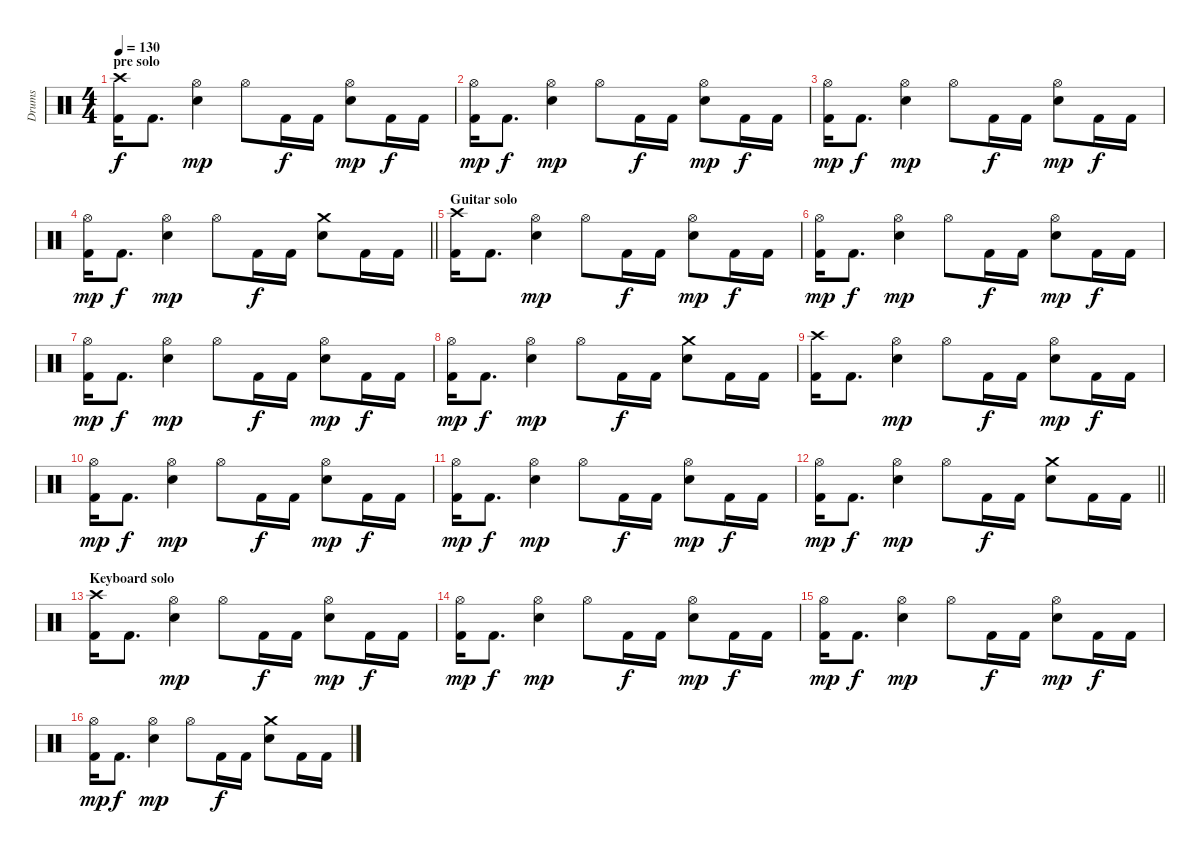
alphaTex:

\track ("Drums" "Drums") {instrument percussion}
\staff {score}
\articulation defaults
\ts (4 4)
\section ("" "pre solo")
\tempo 130
\clef neutral
\ks c
("Crash high (hit)" "Kick (hit) 2").16{dy f} "Kick (hit) 2".8{d} ("Hi-Hat (open)" "Electric Snare (hit)").4{dy mp} "Hi-Hat (open)".8 "Kick (hit) 2".16{dy f} "Kick (hit) 2".16 ("Hi-Hat (open)" "Electric Snare (hit)").8{dy mp} "Kick (hit) 2".16{dy f} "Kick (hit) 2".16 |
("Hi-Hat (open)" "Kick (hit) 2").16{dy mp} "Kick (hit) 2".8{d dy f} ("Hi-Hat (open)" "Electric Snare (hit)").4{dy mp} "Hi-Hat (open)".8 "Kick (hit) 2".16{dy f} "Kick (hit) 2".16 ("Hi-Hat (open)" "Electric Snare (hit)").8{dy mp} "Kick (hit) 2".16{dy f} "Kick (hit) 2".16 |
("Hi-Hat (open)" "Kick (hit) 2").16{dy mp} "Kick (hit) 2".8{d dy f} ("Hi-Hat (open)" "Electric Snare (hit)").4{dy mp} "Hi-Hat (open)".8 "Kick (hit) 2".16{dy f} "Kick (hit) 2".16 ("Hi-Hat (open)" "Electric Snare (hit)").8{dy mp} "Kick (hit) 2".16{dy f} "Kick (hit) 2".16 |
\barLineRight lightlight
("Hi-Hat (open)" "Kick (hit) 2").16{dy mp} "Kick (hit) 2".8{d dy f} ("Hi-Hat (open)" "Electric Snare (hit)").4{dy mp} "Hi-Hat (open)".8 "Kick (hit) 2".16{dy f} "Kick (hit) 2".16 ("Crash medium (hit)" "Electric Snare (hit)").8 "Kick (hit) 2".16 "Kick (hit) 2".16 |
\section ("" "Guitar solo")
("Crash high (hit)" "Kick (hit) 2").16 "Kick (hit) 2".8{d} ("Hi-Hat (open)" "Electric Snare (hit)").4{dy mp} "Hi-Hat (open)".8 "Kick (hit) 2".16{dy f} "Kick (hit) 2".16 ("Hi-Hat (open)" "Electric Snare (hit)").8{dy mp} "Kick (hit) 2".16{dy f} "Kick (hit) 2".16 |
("Hi-Hat (open)" "Kick (hit) 2").16{dy mp} "Kick (hit) 2".8{d dy f} ("Hi-Hat (open)" "Electric Snare (hit)").4{dy mp} "Hi-Hat (open)".8 "Kick (hit) 2".16{dy f} "Kick (hit) 2".16 ("Hi-Hat (open)" "Electric Snare (hit)").8{dy mp} "Kick (hit) 2".16{dy f} "Kick (hit) 2".16 |
("Hi-Hat (open)" "Kick (hit) 2").16{dy mp} "Kick (hit) 2".8{d dy f} ("Hi-Hat (open)" "Electric Snare (hit)").4{dy mp} "Hi-Hat (open)".8 "Kick (hit) 2".16{dy f} "Kick (hit) 2".16 ("Hi-Hat (open)" "Electric Snare (hit)").8{dy mp} "Kick (hit) 2".16{dy f} "Kick (hit) 2".16 |
("Hi-Hat (open)" "Kick (hit) 2").16{dy mp} "Kick (hit) 2".8{d dy f} ("Hi-Hat (open)" "Electric Snare (hit)").4{dy mp} "Hi-Hat (open)".8 "Kick (hit) 2".16{dy f} "Kick (hit) 2".16 ("Crash medium (hit)" "Electric Snare (hit)").8 "Kick (hit) 2".16 "Kick (hit) 2".16 |
("Crash high (hit)" "Kick (hit) 2").16 "Kick (hit) 2".8{d} ("Hi-Hat (open)" "Electric Snare (hit)").4{dy mp} "Hi-Hat (open)".8 "Kick (hit) 2".16{dy f} "Kick (hit) 2".16 ("Hi-Hat (open)" "Electric Snare (hit)").8{dy mp} "Kick (hit) 2".16{dy f} "Kick (hit) 2".16 |
("Hi-Hat (open)" "Kick (hit) 2").16{dy mp} "Kick (hit) 2".8{d dy f} ("Hi-Hat (open)" "Electric Snare (hit)").4{dy mp} "Hi-Hat (open)".8 "Kick (hit) 2".16{dy f} "Kick (hit) 2".16 ("Hi-Hat (open)" "Electric Snare (hit)").8{dy mp} "Kick (hit) 2".16{dy f} "Kick (hit) 2".16 |
("Hi-Hat (open)" "Kick (hit) 2").16{dy mp} "Kick (hit) 2".8{d dy f} ("Hi-Hat (open)" "Electric Snare (hit)").4{dy mp} "Hi-Hat (open)".8 "Kick (hit) 2".16{dy f} "Kick (hit) 2".16 ("Hi-Hat (open)" "Electric Snare (hit)").8{dy mp} "Kick (hit) 2".16{dy f} "Kick (hit) 2".16 |
\barLineRight lightlight
("Hi-Hat (open)" "Kick (hit) 2").16{dy mp} "Kick (hit) 2".8{d dy f} ("Hi-Hat (open)" "Electric Snare (hit)").4{dy mp} "Hi-Hat (open)".8 "Kick (hit) 2".16{dy f} "Kick (hit) 2".16 ("Crash medium (hit)" "Electric Snare (hit)").8 "Kick (hit) 2".16 "Kick (hit) 2".16 |
\section ("" "Keyboard solo")
("Crash high (hit)" "Kick (hit) 2").16 "Kick (hit) 2".8{d} ("Hi-Hat (open)" "Electric Snare (hit)").4{dy mp} "Hi-Hat (open)".8 "Kick (hit) 2".16{dy f} "Kick (hit) 2".16 ("Hi-Hat (open)" "Electric Snare (hit)").8{dy mp} "Kick (hit) 2".16{dy f} "Kick (hit) 2".16 |
("Hi-Hat (open)" "Kick (hit) 2").16{dy mp} "Kick (hit) 2".8{d dy f} ("Hi-Hat (open)" "Electric Snare (hit)").4{dy mp} "Hi-Hat (open)".8 "Kick (hit) 2".16{dy f} "Kick (hit) 2".16 ("Hi-Hat (open)" "Electric Snare (hit)").8{dy mp} "Kick (hit) 2".16{dy f} "Kick (hit) 2".16 |
("Hi-Hat (open)" "Kick (hit) 2").16{dy mp} "Kick (hit) 2".8{d dy f} ("Hi-Hat (open)" "Electric Snare (hit)").4{dy mp} "Hi-Hat (open)".8 "Kick (hit) 2".16{dy f} "Kick (hit) 2".16 ("Hi-Hat (open)" "Electric Snare (hit)").8{dy mp} "Kick (hit) 2".16{dy f} "Kick (hit) 2".16 |
("Hi-Hat (open)" "Kick (hit) 2").16{dy mp} "Kick (hit) 2".8{d dy f} ("Hi-Hat (open)" "Electric Snare (hit)").4{dy mp} "Hi-Hat (open)".8 "Kick (hit) 2".16{dy f} "Kick (hit) 2".16 ("Crash medium (hit)" "Electric Snare (hit)").8 "Kick (hit) 2".16 "Kick (hit) 2".16
